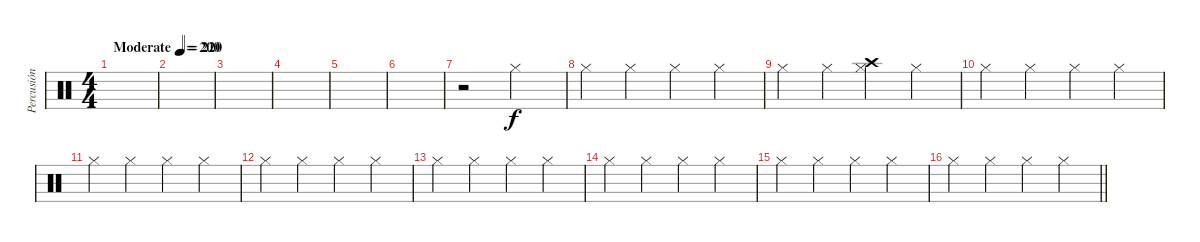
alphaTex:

\track ("Percusión" "Percusión") {instrument percussion}
\staff {score}
\articulation defaults
\ts (4 4)
\tempo (200 "Moderate")
\tempo 210
\tempo (200 "Moderate")
\clef neutral
\ks c
|
\tempo (220 0.25)
|
|
|
|
|
r.2 "Hi-Hat (closed)".2 |
"Hi-Hat (closed)".4 "Hi-Hat (closed)".4 "Hi-Hat (closed)".4 "Hi-Hat (closed)".4 |
"Hi-Hat (closed)".4 "Hi-Hat (closed)".4 ("Hi-Hat (closed)" "Crash high (hit)").4 "Hi-Hat (closed)".4 |
"Hi-Hat (closed)".4 "Hi-Hat (closed)".4 "Hi-Hat (closed)".4 "Hi-Hat (closed)".4 |
"Hi-Hat (closed)".4 "Hi-Hat (closed)".4 "Hi-Hat (closed)".4 "Hi-Hat (closed)".4 |
"Hi-Hat (closed)".4 "Hi-Hat (closed)".4 "Hi-Hat (closed)".4 "Hi-Hat (closed)".4 |
"Hi-Hat (closed)".4 "Hi-Hat (closed)".4 "Hi-Hat (closed)".4 "Hi-Hat (closed)".4 |
"Hi-Hat (closed)".4 "Hi-Hat (closed)".4 "Hi-Hat (closed)".4 "Hi-Hat (closed)".4 |
"Hi-Hat (closed)".4 "Hi-Hat (closed)".4 "Hi-Hat (closed)".4 "Hi-Hat (closed)".4 |
\barLineRight lightlight "Hi-Hat (closed)".4 "Hi-Hat (closed)".4 "Hi-Hat (closed)".4 "Hi-Hat (closed)".4
